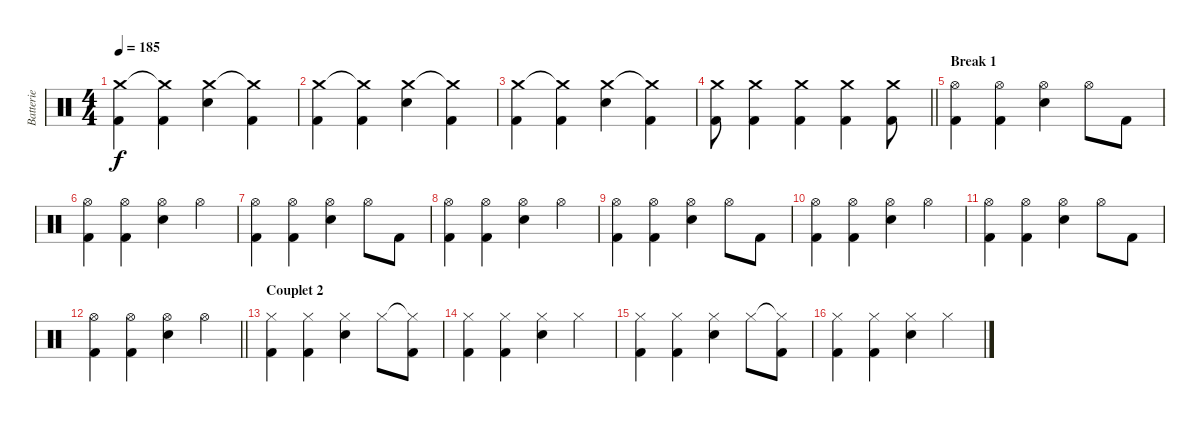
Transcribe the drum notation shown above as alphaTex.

\track ("Batterie" "Batterie") {instrument percussion}
\staff {score}
\articulation defaults
\ts (4 4)
\tempo 185
\clef neutral
\ks c
("Crash medium (hit)" "Kick (hit) 2").4{dy f} ("Crash medium (hit)"{t} "Kick (hit) 2").4 ("Crash medium (hit)" "Electric Snare (hit)").4 ("Crash medium (hit)"{t} "Kick (hit) 2").4 |
("Crash medium (hit)" "Kick (hit) 2").4 ("Crash medium (hit)"{t} "Kick (hit) 2").4 ("Crash medium (hit)" "Electric Snare (hit)").4 ("Crash medium (hit)"{t} "Kick (hit) 2").4 |
("Crash medium (hit)" "Kick (hit) 2").4 ("Crash medium (hit)"{t} "Kick (hit) 2").4 ("Crash medium (hit)" "Electric Snare (hit)").4 ("Crash medium (hit)"{t} "Kick (hit) 2").4 |
\barLineRight lightlight
("Crash medium (hit)" "Kick (hit) 2").8 ("Crash medium (hit)" "Kick (hit) 2").4 ("Crash medium (hit)" "Kick (hit) 2").4 ("Crash medium (hit)" "Kick (hit) 2").4 ("Crash medium (hit)" "Kick (hit) 2").8 |
\section ("" "Break 1")
("Hi-Hat (open)" "Kick (hit) 2").4 ("Hi-Hat (open)" "Kick (hit) 2").4 ("Hi-Hat (open)" "Electric Snare (hit)").4 "Hi-Hat (open)".8 "Kick (hit) 2".8 |
("Hi-Hat (open)" "Kick (hit) 2").4 ("Hi-Hat (open)" "Kick (hit) 2").4 ("Hi-Hat (open)" "Electric Snare (hit)").4 "Hi-Hat (open)".4 |
("Hi-Hat (open)" "Kick (hit) 2").4 ("Hi-Hat (open)" "Kick (hit) 2").4 ("Hi-Hat (open)" "Electric Snare (hit)").4 "Hi-Hat (open)".8 "Kick (hit) 2".8 |
("Hi-Hat (open)" "Kick (hit) 2").4 ("Hi-Hat (open)" "Kick (hit) 2").4 ("Hi-Hat (open)" "Electric Snare (hit)").4 "Hi-Hat (open)".4 |
("Hi-Hat (open)" "Kick (hit) 2").4 ("Hi-Hat (open)" "Kick (hit) 2").4 ("Hi-Hat (open)" "Electric Snare (hit)").4 "Hi-Hat (open)".8 "Kick (hit) 2".8 |
("Hi-Hat (open)" "Kick (hit) 2").4 ("Hi-Hat (open)" "Kick (hit) 2").4 ("Hi-Hat (open)" "Electric Snare (hit)").4 "Hi-Hat (open)".4 |
("Hi-Hat (open)" "Kick (hit) 2").4 ("Hi-Hat (open)" "Kick (hit) 2").4 ("Hi-Hat (open)" "Electric Snare (hit)").4 "Hi-Hat (open)".8 "Kick (hit) 2".8 |
\barLineRight lightlight
("Hi-Hat (open)" "Kick (hit) 2").4 ("Hi-Hat (open)" "Kick (hit) 2").4 ("Hi-Hat (open)" "Electric Snare (hit)").4 "Hi-Hat (open)".4 |
\section ("" "Couplet 2")
("Hi-Hat (closed)" "Kick (hit) 2").4 ("Hi-Hat (closed)" "Kick (hit) 2").4 ("Hi-Hat (closed)" "Electric Snare (hit)").4 "Hi-Hat (closed)".8 ("Hi-Hat (closed)"{t} "Kick (hit) 2").8 |
("Hi-Hat (closed)" "Kick (hit) 2").4 ("Hi-Hat (closed)" "Kick (hit) 2").4 ("Hi-Hat (closed)" "Electric Snare (hit)").4 "Hi-Hat (closed)".4 |
("Hi-Hat (closed)" "Kick (hit) 2").4 ("Hi-Hat (closed)" "Kick (hit) 2").4 ("Hi-Hat (closed)" "Electric Snare (hit)").4 "Hi-Hat (closed)".8 ("Hi-Hat (closed)"{t} "Kick (hit) 2").8 |
("Hi-Hat (closed)" "Kick (hit) 2").4 ("Hi-Hat (closed)" "Kick (hit) 2").4 ("Hi-Hat (closed)" "Electric Snare (hit)").4 "Hi-Hat (closed)".4
